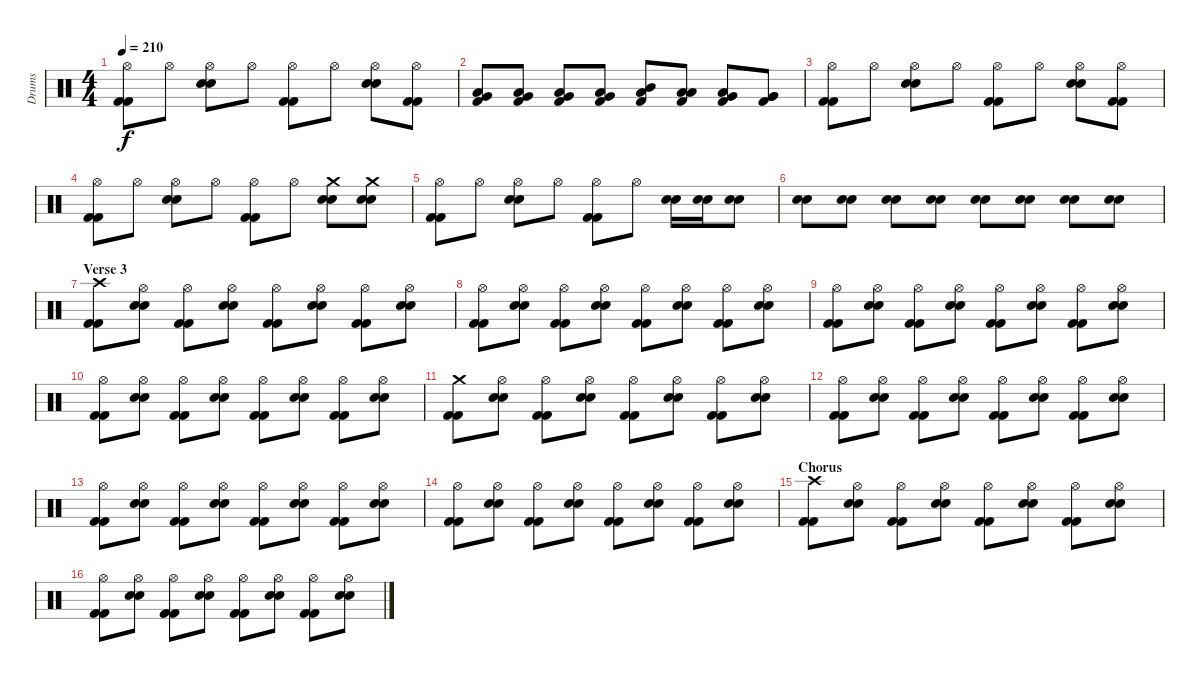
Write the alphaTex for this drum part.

\track ("Drums" "Drums") {instrument percussion}
\staff {score}
\articulation defaults
\ts (4 4)
\tempo 210
\clef neutral
\ks c
("Hi-Hat (open)" "Kick (hit) 2" "Kick (hit) 2").8{dy f} "Hi-Hat (open)".8 ("Hi-Hat (open)" "Snare (hit) 2" "Snare (hit) 2").8 "Hi-Hat (open)".8 ("Hi-Hat (open)" "Kick (hit) 2" "Kick (hit) 2").8 "Hi-Hat (open)".8 ("Hi-Hat (open)" "Snare (hit) 2" "Snare (hit) 2").8 ("Hi-Hat (open)" "Kick (hit) 2" "Kick (hit) 2").8 |
("Low Tom (hit)" "Very Low Tom (hit)" "Kick (hit) 2").8 ("Low Tom (hit)" "Very Low Tom (hit)" "Kick (hit) 2").8 ("Low Tom (hit)" "Very Low Tom (hit)" "Kick (hit) 2").8 ("Low Tom (hit)" "Very Low Tom (hit)" "Kick (hit) 2").8 ("Mid Tom (hit)" "Low Tom (hit)" "Kick (hit) 2").8 ("Low Tom (hit)" "Low Tom (hit)" "Kick (hit) 2").8 ("Very Low Tom (hit)" "Low Tom (hit)" "Kick (hit) 2").8 ("Very Low Tom (hit)" "Very Low Tom (hit)" "Kick (hit) 2").8 |
("Hi-Hat (open)" "Kick (hit) 2" "Kick (hit) 2").8 "Hi-Hat (open)".8 ("Hi-Hat (open)" "Snare (hit) 2" "Snare (hit) 2").8 "Hi-Hat (open)".8 ("Hi-Hat (open)" "Kick (hit) 2" "Kick (hit) 2").8 "Hi-Hat (open)".8 ("Hi-Hat (open)" "Snare (hit) 2" "Snare (hit) 2").8 ("Hi-Hat (open)" "Kick (hit) 2" "Kick (hit) 2").8 |
("Hi-Hat (open)" "Kick (hit) 2" "Kick (hit) 2").8 "Hi-Hat (open)".8 ("Hi-Hat (open)" "Snare (hit) 2" "Snare (hit) 2").8 "Hi-Hat (open)".8 ("Hi-Hat (open)" "Kick (hit) 2" "Kick (hit) 2").8 "Hi-Hat (open)".8 ("Crash medium (hit)" "Snare (hit) 2" "Snare (hit) 2").8 ("Crash medium (hit)" "Snare (hit) 2" "Snare (hit) 2").8 |
("Hi-Hat (open)" "Kick (hit) 2" "Kick (hit) 2").8 "Hi-Hat (open)".8 ("Hi-Hat (open)" "Snare (hit) 2" "Snare (hit) 2").8 "Hi-Hat (open)".8 ("Hi-Hat (open)" "Kick (hit) 2" "Kick (hit) 2").8 "Hi-Hat (open)".8 ("Snare (hit) 2" "Snare (hit) 2").16 ("Snare (hit) 2" "Snare (hit) 2").16 ("Snare (hit) 2" "Snare (hit) 2").8 |
("Snare (hit) 2" "Snare (hit) 2").8 ("Snare (hit) 2" "Snare (hit) 2").8 ("Snare (hit) 2" "Snare (hit) 2").8 ("Snare (hit) 2" "Snare (hit) 2").8 ("Snare (hit) 2" "Snare (hit) 2").8 ("Snare (hit) 2" "Snare (hit) 2").8 ("Snare (hit) 2" "Snare (hit) 2").8 ("Snare (hit) 2" "Snare (hit) 2").8 |
\section ("" "Verse 3")
("Crash high (hit)" "Kick (hit) 2" "Kick (hit) 2").8 ("Hi-Hat (open)" "Snare (hit) 2" "Snare (hit) 2").8 ("Hi-Hat (open)" "Kick (hit) 2" "Kick (hit) 2").8 ("Hi-Hat (open)" "Snare (hit) 2" "Snare (hit) 2").8 ("Hi-Hat (open)" "Kick (hit) 2" "Kick (hit) 2").8 ("Hi-Hat (open)" "Snare (hit) 2" "Snare (hit) 2").8 ("Hi-Hat (open)" "Kick (hit) 2" "Kick (hit) 2").8 ("Hi-Hat (open)" "Snare (hit) 2" "Snare (hit) 2").8 |
("Hi-Hat (open)" "Kick (hit) 2" "Kick (hit) 2").8 ("Hi-Hat (open)" "Snare (hit) 2" "Snare (hit) 2").8 ("Hi-Hat (open)" "Kick (hit) 2" "Kick (hit) 2").8 ("Hi-Hat (open)" "Snare (hit) 2" "Snare (hit) 2").8 ("Hi-Hat (open)" "Kick (hit) 2" "Kick (hit) 2").8 ("Hi-Hat (open)" "Snare (hit) 2" "Snare (hit) 2").8 ("Hi-Hat (open)" "Kick (hit) 2" "Kick (hit) 2").8 ("Hi-Hat (open)" "Snare (hit) 2" "Snare (hit) 2").8 |
("Hi-Hat (open)" "Kick (hit) 2" "Kick (hit) 2").8 ("Hi-Hat (open)" "Snare (hit) 2" "Snare (hit) 2").8 ("Hi-Hat (open)" "Kick (hit) 2" "Kick (hit) 2").8 ("Hi-Hat (open)" "Snare (hit) 2" "Snare (hit) 2").8 ("Hi-Hat (open)" "Kick (hit) 2" "Kick (hit) 2").8 ("Hi-Hat (open)" "Snare (hit) 2" "Snare (hit) 2").8 ("Hi-Hat (open)" "Kick (hit) 2" "Kick (hit) 2").8 ("Hi-Hat (open)" "Snare (hit) 2" "Snare (hit) 2").8 |
("Hi-Hat (open)" "Kick (hit) 2" "Kick (hit) 2").8 ("Hi-Hat (open)" "Snare (hit) 2" "Snare (hit) 2").8 ("Hi-Hat (open)" "Kick (hit) 2" "Kick (hit) 2").8 ("Hi-Hat (open)" "Snare (hit) 2" "Snare (hit) 2").8 ("Hi-Hat (open)" "Kick (hit) 2" "Kick (hit) 2").8 ("Hi-Hat (open)" "Snare (hit) 2" "Snare (hit) 2").8 ("Hi-Hat (open)" "Kick (hit) 2" "Kick (hit) 2").8 ("Hi-Hat (open)" "Snare (hit) 2" "Snare (hit) 2").8 |
("Crash medium (hit)" "Kick (hit) 2" "Kick (hit) 2").8 ("Hi-Hat (open)" "Snare (hit) 2" "Snare (hit) 2").8 ("Hi-Hat (open)" "Kick (hit) 2" "Kick (hit) 2").8 ("Hi-Hat (open)" "Snare (hit) 2" "Snare (hit) 2").8 ("Hi-Hat (open)" "Kick (hit) 2" "Kick (hit) 2").8 ("Hi-Hat (open)" "Snare (hit) 2" "Snare (hit) 2").8 ("Hi-Hat (open)" "Kick (hit) 2" "Kick (hit) 2").8 ("Hi-Hat (open)" "Snare (hit) 2" "Snare (hit) 2").8 |
("Hi-Hat (open)" "Kick (hit) 2" "Kick (hit) 2").8 ("Hi-Hat (open)" "Snare (hit) 2" "Snare (hit) 2").8 ("Hi-Hat (open)" "Kick (hit) 2" "Kick (hit) 2").8 ("Hi-Hat (open)" "Snare (hit) 2" "Snare (hit) 2").8 ("Hi-Hat (open)" "Kick (hit) 2" "Kick (hit) 2").8 ("Hi-Hat (open)" "Snare (hit) 2" "Snare (hit) 2").8 ("Hi-Hat (open)" "Kick (hit) 2" "Kick (hit) 2").8 ("Hi-Hat (open)" "Snare (hit) 2" "Snare (hit) 2").8 |
("Hi-Hat (open)" "Kick (hit) 2" "Kick (hit) 2").8 ("Hi-Hat (open)" "Snare (hit) 2" "Snare (hit) 2").8 ("Hi-Hat (open)" "Kick (hit) 2" "Kick (hit) 2").8 ("Hi-Hat (open)" "Snare (hit) 2" "Snare (hit) 2").8 ("Hi-Hat (open)" "Kick (hit) 2" "Kick (hit) 2").8 ("Hi-Hat (open)" "Snare (hit) 2" "Snare (hit) 2").8 ("Hi-Hat (open)" "Kick (hit) 2" "Kick (hit) 2").8 ("Hi-Hat (open)" "Snare (hit) 2" "Snare (hit) 2").8 |
("Hi-Hat (open)" "Kick (hit) 2" "Kick (hit) 2").8 ("Hi-Hat (open)" "Snare (hit) 2" "Snare (hit) 2").8 ("Hi-Hat (open)" "Kick (hit) 2" "Kick (hit) 2").8 ("Hi-Hat (open)" "Snare (hit) 2" "Snare (hit) 2").8 ("Hi-Hat (open)" "Kick (hit) 2" "Kick (hit) 2").8 ("Hi-Hat (open)" "Snare (hit) 2" "Snare (hit) 2").8 ("Hi-Hat (open)" "Kick (hit) 2" "Kick (hit) 2").8 ("Hi-Hat (open)" "Snare (hit) 2" "Snare (hit) 2").8 |
\section ("" "Chorus")
("Crash high (hit)" "Kick (hit) 2" "Kick (hit) 2").8 ("Hi-Hat (open)" "Snare (hit) 2" "Snare (hit) 2").8 ("Hi-Hat (open)" "Kick (hit) 2" "Kick (hit) 2").8 ("Hi-Hat (open)" "Snare (hit) 2" "Snare (hit) 2").8 ("Hi-Hat (open)" "Kick (hit) 2" "Kick (hit) 2").8 ("Hi-Hat (open)" "Snare (hit) 2" "Snare (hit) 2").8 ("Hi-Hat (open)" "Kick (hit) 2" "Kick (hit) 2").8 ("Hi-Hat (open)" "Snare (hit) 2" "Snare (hit) 2").8 |
("Hi-Hat (open)" "Kick (hit) 2" "Kick (hit) 2").8 ("Hi-Hat (open)" "Snare (hit) 2" "Snare (hit) 2").8 ("Hi-Hat (open)" "Kick (hit) 2" "Kick (hit) 2").8 ("Hi-Hat (open)" "Snare (hit) 2" "Snare (hit) 2").8 ("Hi-Hat (open)" "Kick (hit) 2" "Kick (hit) 2").8 ("Hi-Hat (open)" "Snare (hit) 2" "Snare (hit) 2").8 ("Hi-Hat (open)" "Kick (hit) 2" "Kick (hit) 2").8 ("Hi-Hat (open)" "Snare (hit) 2" "Snare (hit) 2").8
